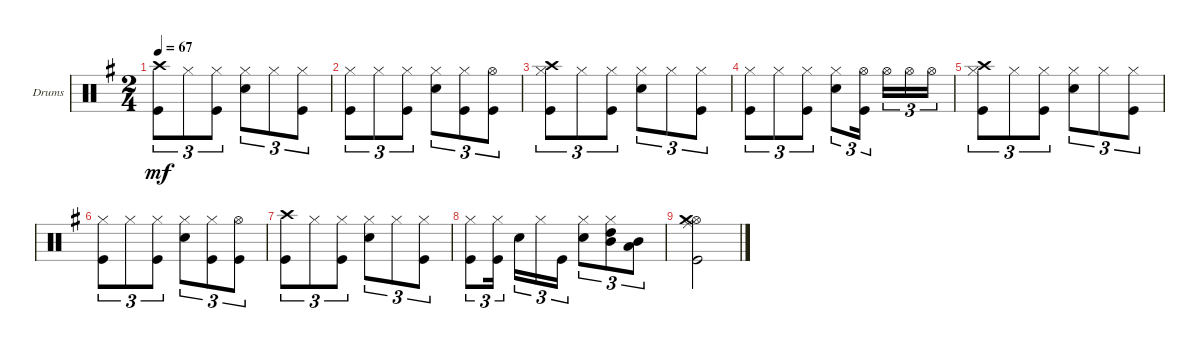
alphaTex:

\bracketExtendMode groupsimilarinstruments
\firstSystemTrackNameOrientation horizontal
\otherSystemsTrackNameOrientation horizontal
\track ("drums (Anton Zulganov)" "Drums") {instrument percussion}
\staff {score}
\articulation defaults
\ts (2 4)
\tempo 67
\clef neutral
\ks eminor
("Kick (hit)" "Crash high (hit)").8{tu (3 2) dy mf} "Hi-Hat (closed)".8{tu (3 2)} ("Hi-Hat (closed)" "Kick (hit)").8{tu (3 2)} ("Hi-Hat (closed)" "Snare (hit) 2").8{tu (3 2)} "Hi-Hat (closed)".8{tu (3 2)} ("Hi-Hat (closed)" "Kick (hit)").8{tu (3 2)} |
("Hi-Hat (closed)" "Kick (hit)").8{tu (3 2)} "Hi-Hat (closed)".8{tu (3 2)} ("Hi-Hat (closed)" "Kick (hit)").8{tu (3 2)} ("Hi-Hat (closed)" "Snare (hit) 2").8{tu (3 2)} ("Hi-Hat (closed)" "Kick (hit)").8{tu (3 2)} ("Hi-Hat (open)" "Kick (hit)").8{tu (3 2)} |
("Kick (hit)" "Crash high (hit)" "Hi-Hat (closed)").8{tu (3 2)} "Hi-Hat (closed)".8{tu (3 2)} ("Hi-Hat (closed)" "Kick (hit)").8{tu (3 2)} ("Hi-Hat (closed)" "Snare (hit) 2").8{tu (3 2)} "Hi-Hat (closed)".8{tu (3 2)} ("Hi-Hat (closed)" "Kick (hit)").8{tu (3 2)} |
("Hi-Hat (closed)" "Kick (hit)").8{tu (3 2)} "Hi-Hat (closed)".8{tu (3 2)} ("Hi-Hat (closed)" "Kick (hit)").8{tu (3 2)} ("Hi-Hat (closed)" "Snare (hit) 2").8{tu (3 2)} ("Hi-Hat (open)" "Kick (hit)").16{tu (3 2)} "Hi-Hat (open)".16{tu (3 2)} "Hi-Hat (open)".16{tu (3 2)} "Hi-Hat (open)".16{tu (3 2)} |
("Kick (hit)" "Crash high (hit)" "Hi-Hat (closed)").8{tu (3 2)} "Hi-Hat (closed)".8{tu (3 2)} ("Hi-Hat (closed)" "Kick (hit)").8{tu (3 2)} ("Hi-Hat (closed)" "Snare (hit) 2").8{tu (3 2)} "Hi-Hat (closed)".8{tu (3 2)} ("Hi-Hat (closed)" "Kick (hit)").8{tu (3 2)} |
("Hi-Hat (closed)" "Kick (hit)").8{tu (3 2)} "Hi-Hat (closed)".8{tu (3 2)} ("Hi-Hat (closed)" "Kick (hit)").8{tu (3 2)} ("Hi-Hat (closed)" "Snare (hit) 2").8{tu (3 2)} ("Hi-Hat (closed)" "Kick (hit)").8{tu (3 2)} ("Hi-Hat (open)" "Kick (hit)").8{tu (3 2)} |
("Kick (hit)" "Crash high (hit)").8{tu (3 2)} "Hi-Hat (closed)".8{tu (3 2)} ("Hi-Hat (closed)" "Kick (hit)").8{tu (3 2)} ("Hi-Hat (closed)" "Snare (hit) 2").8{tu (3 2)} "Hi-Hat (closed)".8{tu (3 2)} ("Hi-Hat (closed)" "Kick (hit)").8{tu (3 2)} |
("Hi-Hat (closed)" "Kick (hit)").8{tu (3 2)} ("Hi-Hat (closed)" "Kick (hit)").16{tu (3 2)} "Snare (hit) 2".16{tu (3 2)} "Hi-Hat (closed)".16{tu (3 2)} "Kick (hit)".16{tu (3 2)} ("Hi-Hat (closed)" "Snare (hit) 2").8{tu (3 2)} ("Hi-Hat (closed)" "High Tom (hit)" "Mid Tom (hit)").8{tu (3 2)} ("Mid Tom (hit)" "Low Tom (hit)").8{tu (3 2)} |
("Hi-Hat (open)" "Ride (middle)" "Crash medium (hit)" "Kick (hit)").2
